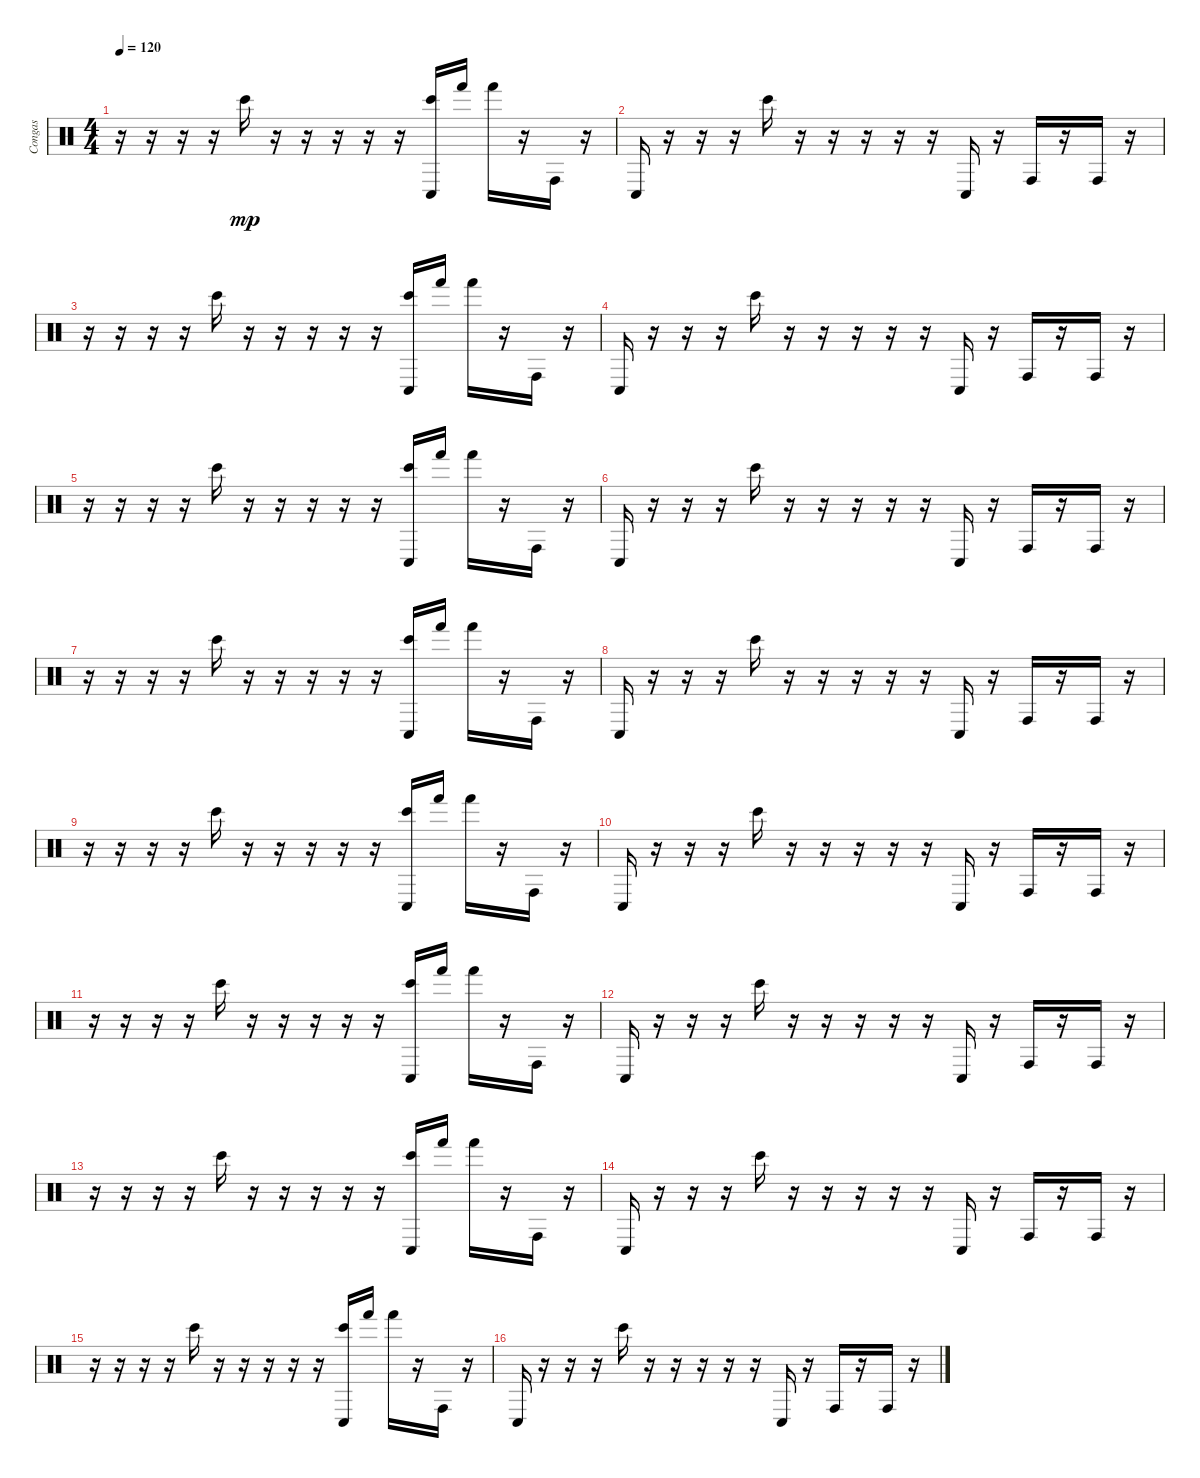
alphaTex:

\track ("Congas" "Congas") {instrument percussion}
\staff {score}
\articulation defaults
\ts (4 4)
\tempo 120
\clef neutral
\ks c
r.16{dy mp} r.16 r.16 r.16 "Bongo High (hit)".16 r.16 r.16 r.16 r.16 r.16 ("Bongo High (hit)" "Conga low (hit)").16 "Hand (hit)".16 "Hand (hit)".16 r.16 "Conga high (hit)".16 r.16 |
"Conga low (hit)".16 r.16 r.16 r.16 "Bongo High (hit)".16 r.16 r.16 r.16 r.16 r.16 "Conga low (hit)".16 r.16 "Conga high (hit)".16 r.16 "Conga high (hit)".16 r.16 |
r.16 r.16 r.16 r.16 "Bongo High (hit)".16 r.16 r.16 r.16 r.16 r.16 ("Bongo High (hit)" "Conga low (hit)").16 "Hand (hit)".16 "Hand (hit)".16 r.16 "Conga high (hit)".16 r.16 |
"Conga low (hit)".16 r.16 r.16 r.16 "Bongo High (hit)".16 r.16 r.16 r.16 r.16 r.16 "Conga low (hit)".16 r.16 "Conga high (hit)".16 r.16 "Conga high (hit)".16 r.16 |
r.16 r.16 r.16 r.16 "Bongo High (hit)".16 r.16 r.16 r.16 r.16 r.16 ("Bongo High (hit)" "Conga low (hit)").16 "Hand (hit)".16 "Hand (hit)".16 r.16 "Conga high (hit)".16 r.16 |
"Conga low (hit)".16 r.16 r.16 r.16 "Bongo High (hit)".16 r.16 r.16 r.16 r.16 r.16 "Conga low (hit)".16 r.16 "Conga high (hit)".16 r.16 "Conga high (hit)".16 r.16 |
r.16 r.16 r.16 r.16 "Bongo High (hit)".16 r.16 r.16 r.16 r.16 r.16 ("Bongo High (hit)" "Conga low (hit)").16 "Hand (hit)".16 "Hand (hit)".16 r.16 "Conga high (hit)".16 r.16 |
"Conga low (hit)".16 r.16 r.16 r.16 "Bongo High (hit)".16 r.16 r.16 r.16 r.16 r.16 "Conga low (hit)".16 r.16 "Conga high (hit)".16 r.16 "Conga high (hit)".16 r.16 |
r.16 r.16 r.16 r.16 "Bongo High (hit)".16 r.16 r.16 r.16 r.16 r.16 ("Bongo High (hit)" "Conga low (hit)").16 "Hand (hit)".16 "Hand (hit)".16 r.16 "Conga high (hit)".16 r.16 |
"Conga low (hit)".16 r.16 r.16 r.16 "Bongo High (hit)".16 r.16 r.16 r.16 r.16 r.16 "Conga low (hit)".16 r.16 "Conga high (hit)".16 r.16 "Conga high (hit)".16 r.16 |
r.16 r.16 r.16 r.16 "Bongo High (hit)".16 r.16 r.16 r.16 r.16 r.16 ("Bongo High (hit)" "Conga low (hit)").16 "Hand (hit)".16 "Hand (hit)".16 r.16 "Conga high (hit)".16 r.16 |
"Conga low (hit)".16 r.16 r.16 r.16 "Bongo High (hit)".16 r.16 r.16 r.16 r.16 r.16 "Conga low (hit)".16 r.16 "Conga high (hit)".16 r.16 "Conga high (hit)".16 r.16 |
r.16 r.16 r.16 r.16 "Bongo High (hit)".16 r.16 r.16 r.16 r.16 r.16 ("Bongo High (hit)" "Conga low (hit)").16 "Hand (hit)".16 "Hand (hit)".16 r.16 "Conga high (hit)".16 r.16 |
"Conga low (hit)".16 r.16 r.16 r.16 "Bongo High (hit)".16 r.16 r.16 r.16 r.16 r.16 "Conga low (hit)".16 r.16 "Conga high (hit)".16 r.16 "Conga high (hit)".16 r.16 |
r.16 r.16 r.16 r.16 "Bongo High (hit)".16 r.16 r.16 r.16 r.16 r.16 ("Bongo High (hit)" "Conga low (hit)").16 "Hand (hit)".16 "Hand (hit)".16 r.16 "Conga high (hit)".16 r.16 |
"Conga low (hit)".16 r.16 r.16 r.16 "Bongo High (hit)".16 r.16 r.16 r.16 r.16 r.16 "Conga low (hit)".16 r.16 "Conga high (hit)".16 r.16 "Conga high (hit)".16 r.16
